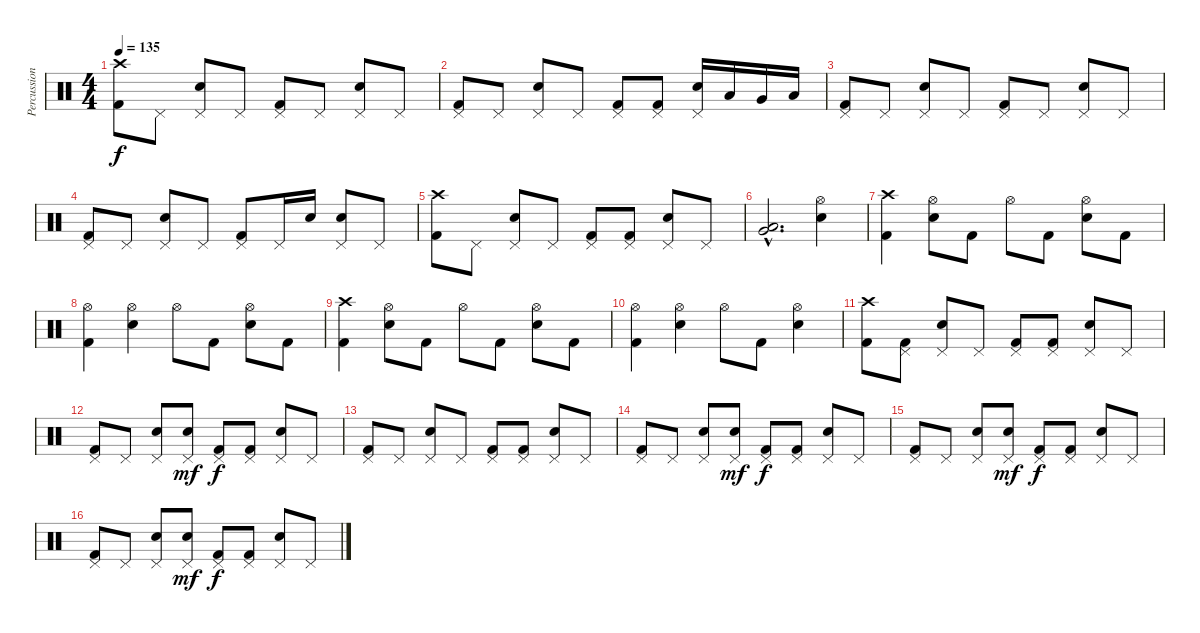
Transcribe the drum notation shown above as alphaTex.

\track ("Percussion" "Percussion") {instrument percussion}
\staff {score}
\articulation defaults
\ts (4 4)
\tempo 135
\clef neutral
\ks c
("Crash high (hit)" "Kick (hit) 2").8{dy f} "Pedal Hi-Hat (hit)".8 ("Pedal Hi-Hat (hit)" "Snare (hit) 2").8 "Pedal Hi-Hat (hit)".8 ("Pedal Hi-Hat (hit)" "Kick (hit) 2").8 "Pedal Hi-Hat (hit)".8 ("Pedal Hi-Hat (hit)" "Snare (hit) 2").8 "Pedal Hi-Hat (hit)".8 |
("Pedal Hi-Hat (hit)" "Kick (hit) 2").8 "Pedal Hi-Hat (hit)".8 ("Pedal Hi-Hat (hit)" "Snare (hit) 2").8 "Pedal Hi-Hat (hit)".8 ("Pedal Hi-Hat (hit)" "Kick (hit) 2").8 ("Pedal Hi-Hat (hit)" "Kick (hit) 2").8 ("Pedal Hi-Hat (hit)" "Snare (hit) 2").16 "Low Tom (hit)".16 "Very Low Tom (hit)".16 "Low Floor Tom (hit)".16 |
("Pedal Hi-Hat (hit)" "Kick (hit) 2").8 "Pedal Hi-Hat (hit)".8 ("Pedal Hi-Hat (hit)" "Snare (hit) 2").8 "Pedal Hi-Hat (hit)".8 ("Pedal Hi-Hat (hit)" "Kick (hit) 2").8 "Pedal Hi-Hat (hit)".8 ("Pedal Hi-Hat (hit)" "Snare (hit) 2").8 "Pedal Hi-Hat (hit)".8 |
("Pedal Hi-Hat (hit)" "Kick (hit) 2").8 "Pedal Hi-Hat (hit)".8 ("Pedal Hi-Hat (hit)" "Snare (hit) 2").8 "Pedal Hi-Hat (hit)".8 ("Pedal Hi-Hat (hit)" "Kick (hit) 2").8 "Pedal Hi-Hat (hit)".16 "Snare (hit) 2".16 ("Pedal Hi-Hat (hit)" "Snare (hit) 2").8 "Pedal Hi-Hat (hit)".8 |
("Crash high (hit)" "Kick (hit) 2").8 "Pedal Hi-Hat (hit)".8 ("Pedal Hi-Hat (hit)" "Snare (hit) 2").8 "Pedal Hi-Hat (hit)".8 ("Pedal Hi-Hat (hit)" "Kick (hit) 2").8 ("Pedal Hi-Hat (hit)" "Kick (hit) 2").8 ("Pedal Hi-Hat (hit)" "Snare (hit) 2").8 "Pedal Hi-Hat (hit)".8 |
("Low Tom (hit)"{hac} "Very Low Tom (hit)"{hac}).2{d} ("Hi-Hat (open)" "Snare (hit) 2").4 |
("Crash high (hit)" "Kick (hit) 2").4 ("Hi-Hat (open)" "Snare (hit) 2").8 "Kick (hit) 2".8 "Hi-Hat (open)".8 "Kick (hit) 2".8 ("Hi-Hat (open)" "Snare (hit) 2").8 "Kick (hit) 2".8 |
("Hi-Hat (open)" "Kick (hit) 2").4 ("Hi-Hat (open)" "Snare (hit) 2").4 "Hi-Hat (open)".8 "Kick (hit) 2".8 ("Hi-Hat (open)" "Snare (hit) 2").8 "Kick (hit) 2".8 |
("Crash high (hit)" "Kick (hit) 2").4 ("Hi-Hat (open)" "Snare (hit) 2").8 "Kick (hit) 2".8 "Hi-Hat (open)".8 "Kick (hit) 2".8 ("Hi-Hat (open)" "Snare (hit) 2").8 "Kick (hit) 2".8 |
("Hi-Hat (open)" "Kick (hit) 2").4 ("Hi-Hat (open)" "Snare (hit) 2").4 "Hi-Hat (open)".8 "Kick (hit) 2".8 ("Hi-Hat (open)" "Snare (hit) 2").4 |
("Crash high (hit)" "Kick (hit) 2").8 ("Pedal Hi-Hat (hit)" "Kick (hit) 2").8 ("Pedal Hi-Hat (hit)" "Snare (hit) 2").8 "Pedal Hi-Hat (hit)".8 ("Pedal Hi-Hat (hit)" "Kick (hit) 2").8 ("Pedal Hi-Hat (hit)" "Kick (hit) 2").8 ("Pedal Hi-Hat (hit)" "Snare (hit) 2").8 "Pedal Hi-Hat (hit)".8 |
("Pedal Hi-Hat (hit)" "Kick (hit) 2").8 "Pedal Hi-Hat (hit)".8 ("Pedal Hi-Hat (hit)" "Snare (hit) 2").8 ("Pedal Hi-Hat (hit)" "Snare (hit) 2").8{dy mf} ("Pedal Hi-Hat (hit)" "Kick (hit) 2").8{dy f} ("Pedal Hi-Hat (hit)" "Kick (hit) 2").8 ("Pedal Hi-Hat (hit)" "Snare (hit) 2").8 "Pedal Hi-Hat (hit)".8 |
("Pedal Hi-Hat (hit)" "Kick (hit) 2").8 "Pedal Hi-Hat (hit)".8 ("Pedal Hi-Hat (hit)" "Snare (hit) 2").8 "Pedal Hi-Hat (hit)".8 ("Pedal Hi-Hat (hit)" "Kick (hit) 2").8 ("Pedal Hi-Hat (hit)" "Kick (hit) 2").8 ("Pedal Hi-Hat (hit)" "Snare (hit) 2").8 "Pedal Hi-Hat (hit)".8 |
("Pedal Hi-Hat (hit)" "Kick (hit) 2").8 "Pedal Hi-Hat (hit)".8 ("Pedal Hi-Hat (hit)" "Snare (hit) 2").8 ("Pedal Hi-Hat (hit)" "Snare (hit) 2").8{dy mf} ("Pedal Hi-Hat (hit)" "Kick (hit) 2").8{dy f} ("Pedal Hi-Hat (hit)" "Kick (hit) 2").8 ("Pedal Hi-Hat (hit)" "Snare (hit) 2").8 "Pedal Hi-Hat (hit)".8 |
("Pedal Hi-Hat (hit)" "Kick (hit) 2").8 "Pedal Hi-Hat (hit)".8 ("Pedal Hi-Hat (hit)" "Snare (hit) 2").8 ("Pedal Hi-Hat (hit)" "Snare (hit) 2").8{dy mf} ("Pedal Hi-Hat (hit)" "Kick (hit) 2").8{dy f} ("Pedal Hi-Hat (hit)" "Kick (hit) 2").8 ("Pedal Hi-Hat (hit)" "Snare (hit) 2").8 "Pedal Hi-Hat (hit)".8 |
("Pedal Hi-Hat (hit)" "Kick (hit) 2").8 "Pedal Hi-Hat (hit)".8 ("Pedal Hi-Hat (hit)" "Snare (hit) 2").8 ("Pedal Hi-Hat (hit)" "Snare (hit) 2").8{dy mf} ("Pedal Hi-Hat (hit)" "Kick (hit) 2").8{dy f} ("Pedal Hi-Hat (hit)" "Kick (hit) 2").8 ("Pedal Hi-Hat (hit)" "Snare (hit) 2").8 "Pedal Hi-Hat (hit)".8
